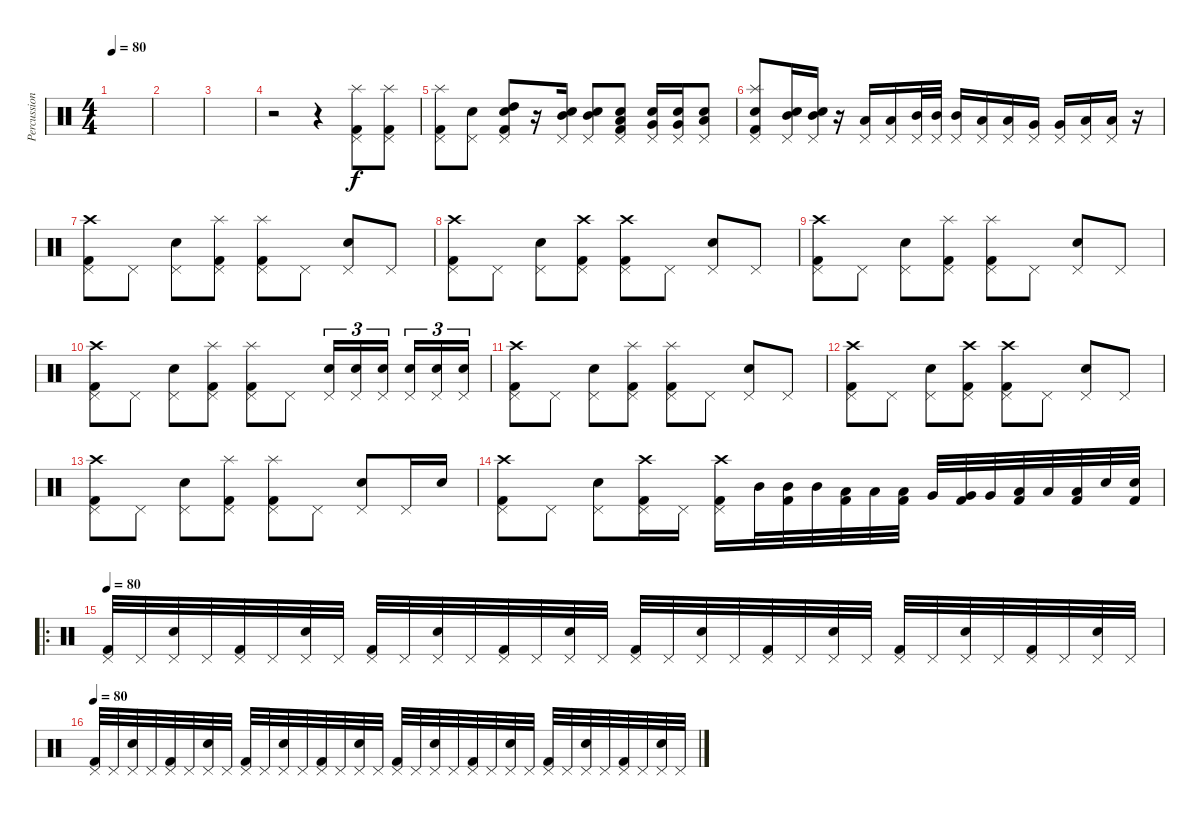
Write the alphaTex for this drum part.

\track ("Percussion" "Percussion") {instrument percussion}
\staff {score}
\articulation defaults
\ts (4 4)
\tempo 80
\clef neutral
\ks c
|
|
|
r.2 r.4 ("Kick (hit) 2" "Pedal Hi-Hat (hit)" "Splash (hit)").8 ("Kick (hit) 2" "Pedal Hi-Hat (hit)" "Splash (hit)").8 |
("Kick (hit) 2" "Pedal Hi-Hat (hit)" "Splash (hit)").8 ("Pedal Hi-Hat (hit)" "Electric Snare (hit)").8 ("Kick (hit) 2" "Pedal Hi-Hat (hit)" "Snare (hit) 2" "High Tom (hit)").8 r.16 ("Pedal Hi-Hat (hit)" "Electric Snare (hit)" "Mid Tom (hit)").16 ("Pedal Hi-Hat (hit)" "Electric Snare (hit)" "Mid Tom (hit)").8 ("Kick (hit) 2" "Pedal Hi-Hat (hit)" "Electric Snare (hit)" "Low Tom (hit)").8 ("Pedal Hi-Hat (hit)" "Electric Snare (hit)" "Very Low Tom (hit)").16 ("Pedal Hi-Hat (hit)" "Electric Snare (hit)" "Very Low Tom (hit)").16 ("Pedal Hi-Hat (hit)" "Snare (hit) 2" "Low Floor Tom (hit)").8 |
("Kick (hit) 2" "Pedal Hi-Hat (hit)" "Electric Snare (hit)" "Splash (hit)").8 ("Pedal Hi-Hat (hit)" "Electric Snare (hit)" "Mid Tom (hit)").16 ("Pedal Hi-Hat (hit)" "Electric Snare (hit)" "Mid Tom (hit)").16 r.16 ("Pedal Hi-Hat (hit)" "Low Tom (hit)").16 ("Pedal Hi-Hat (hit)" "Low Tom (hit)").16 ("Pedal Hi-Hat (hit)" "Mid Tom (hit)").32 ("Pedal Hi-Hat (hit)" "Mid Tom (hit)").32 ("Pedal Hi-Hat (hit)" "Mid Tom (hit)").16 ("Pedal Hi-Hat (hit)" "Low Tom (hit)").16 ("Pedal Hi-Hat (hit)" "Low Tom (hit)").16 ("Pedal Hi-Hat (hit)" "Very Low Tom (hit)").16 ("Pedal Hi-Hat (hit)" "Very Low Tom (hit)").16 ("Pedal Hi-Hat (hit)" "Low Floor Tom (hit)").16 ("Pedal Hi-Hat (hit)" "Low Floor Tom (hit)").16 r.16 |
("Kick (hit) 2" "Pedal Hi-Hat (hit)" "Crash high (hit)").8 "Pedal Hi-Hat (hit)".8 ("Pedal Hi-Hat (hit)" "Electric Snare (hit)").8 ("Kick (hit) 2" "Pedal Hi-Hat (hit)" "Splash (hit)").8 ("Kick (hit) 2" "Pedal Hi-Hat (hit)" "Splash (hit)").8 "Pedal Hi-Hat (hit)".8 ("Pedal Hi-Hat (hit)" "Electric Snare (hit)").8 "Pedal Hi-Hat (hit)".8 |
("Kick (hit) 2" "Pedal Hi-Hat (hit)" "Crash high (hit)").8 "Pedal Hi-Hat (hit)".8 ("Pedal Hi-Hat (hit)" "Electric Snare (hit)").8 ("Kick (hit) 2" "Pedal Hi-Hat (hit)" "Crash high (hit)").8 ("Kick (hit) 2" "Pedal Hi-Hat (hit)" "Crash high (hit)").8 "Pedal Hi-Hat (hit)".8 ("Pedal Hi-Hat (hit)" "Electric Snare (hit)").8 "Pedal Hi-Hat (hit)".8 |
("Kick (hit) 2" "Pedal Hi-Hat (hit)" "Crash high (hit)").8 "Pedal Hi-Hat (hit)".8 ("Pedal Hi-Hat (hit)" "Electric Snare (hit)").8 ("Kick (hit) 2" "Pedal Hi-Hat (hit)" "Splash (hit)").8 ("Kick (hit) 2" "Pedal Hi-Hat (hit)" "Splash (hit)").8 "Pedal Hi-Hat (hit)".8 ("Pedal Hi-Hat (hit)" "Electric Snare (hit)").8 "Pedal Hi-Hat (hit)".8 |
("Kick (hit) 2" "Pedal Hi-Hat (hit)" "Crash high (hit)").8 "Pedal Hi-Hat (hit)".8 ("Pedal Hi-Hat (hit)" "Electric Snare (hit)").8 ("Kick (hit) 2" "Pedal Hi-Hat (hit)" "Splash (hit)").8 ("Kick (hit) 2" "Pedal Hi-Hat (hit)" "Splash (hit)").8 "Pedal Hi-Hat (hit)".8 ("Pedal Hi-Hat (hit)" "Electric Snare (hit)").16{tu (3 2)} ("Pedal Hi-Hat (hit)" "Electric Snare (hit)").16{tu (3 2)} ("Pedal Hi-Hat (hit)" "Electric Snare (hit)").16{tu (3 2)} ("Pedal Hi-Hat (hit)" "Electric Snare (hit)").16{tu (3 2)} ("Pedal Hi-Hat (hit)" "Electric Snare (hit)").16{tu (3 2)} ("Pedal Hi-Hat (hit)" "Electric Snare (hit)").16{tu (3 2)} |
("Kick (hit) 2" "Pedal Hi-Hat (hit)" "Crash high (hit)").8 "Pedal Hi-Hat (hit)".8 ("Pedal Hi-Hat (hit)" "Electric Snare (hit)").8 ("Kick (hit) 2" "Pedal Hi-Hat (hit)" "Splash (hit)").8 ("Kick (hit) 2" "Pedal Hi-Hat (hit)" "Splash (hit)").8 "Pedal Hi-Hat (hit)".8 ("Pedal Hi-Hat (hit)" "Electric Snare (hit)").8 "Pedal Hi-Hat (hit)".8 |
("Kick (hit) 2" "Pedal Hi-Hat (hit)" "Crash high (hit)").8 "Pedal Hi-Hat (hit)".8 ("Pedal Hi-Hat (hit)" "Electric Snare (hit)").8 ("Kick (hit) 2" "Pedal Hi-Hat (hit)" "Crash high (hit)").8 ("Kick (hit) 2" "Pedal Hi-Hat (hit)" "Crash high (hit)").8 "Pedal Hi-Hat (hit)".8 ("Pedal Hi-Hat (hit)" "Electric Snare (hit)").8 "Pedal Hi-Hat (hit)".8 |
("Kick (hit) 2" "Pedal Hi-Hat (hit)" "Crash high (hit)").8 "Pedal Hi-Hat (hit)".8 ("Pedal Hi-Hat (hit)" "Electric Snare (hit)").8 ("Kick (hit) 2" "Pedal Hi-Hat (hit)" "Splash (hit)").8 ("Kick (hit) 2" "Pedal Hi-Hat (hit)" "Splash (hit)").8 "Pedal Hi-Hat (hit)".8 ("Pedal Hi-Hat (hit)" "Electric Snare (hit)").8 "Pedal Hi-Hat (hit)".16 "Electric Snare (hit)".16 |
("Kick (hit) 2" "Pedal Hi-Hat (hit)" "Crash high (hit)").8 "Pedal Hi-Hat (hit)".8 ("Pedal Hi-Hat (hit)" "Electric Snare (hit)").8 ("Kick (hit) 2" "Pedal Hi-Hat (hit)" "Crash high (hit)").16 "Pedal Hi-Hat (hit)".16 ("Kick (hit) 2" "Pedal Hi-Hat (hit)" "Crash high (hit)").16 "Mid Tom (hit)".32 ("Kick (hit) 2" "Mid Tom (hit)").32 "Mid Tom (hit)".32 ("Kick (hit) 2" "Low Tom (hit)").32 "Low Tom (hit)".32 ("Kick (hit) 2" "Low Tom (hit)").32 "Very Low Tom (hit)".32 ("Kick (hit) 2" "Very Low Tom (hit)").32 "Very Low Tom (hit)".32 ("Kick (hit) 2" "Low Floor Tom (hit)").32 "Low Floor Tom (hit)".32 ("Kick (hit) 2" "Low Floor Tom (hit)").32 "Electric Snare (hit)".32 ("Kick (hit) 2" "Electric Snare (hit)").32 |
\ro
\tempo 80
("Kick (hit) 2" "Pedal Hi-Hat (hit)").32 "Pedal Hi-Hat (hit)".32 ("Pedal Hi-Hat (hit)" "Electric Snare (hit)").32 "Pedal Hi-Hat (hit)".32 ("Kick (hit) 2" "Pedal Hi-Hat (hit)").32 "Pedal Hi-Hat (hit)".32 ("Pedal Hi-Hat (hit)" "Electric Snare (hit)").32 "Pedal Hi-Hat (hit)".32 ("Kick (hit) 2" "Pedal Hi-Hat (hit)").32 "Pedal Hi-Hat (hit)".32 ("Pedal Hi-Hat (hit)" "Electric Snare (hit)").32 "Pedal Hi-Hat (hit)".32 ("Kick (hit) 2" "Pedal Hi-Hat (hit)").32 "Pedal Hi-Hat (hit)".32 ("Pedal Hi-Hat (hit)" "Electric Snare (hit)").32 "Pedal Hi-Hat (hit)".32 ("Kick (hit) 2" "Pedal Hi-Hat (hit)").32 "Pedal Hi-Hat (hit)".32 ("Pedal Hi-Hat (hit)" "Electric Snare (hit)").32 "Pedal Hi-Hat (hit)".32 ("Kick (hit) 2" "Pedal Hi-Hat (hit)").32 "Pedal Hi-Hat (hit)".32 ("Pedal Hi-Hat (hit)" "Electric Snare (hit)").32 "Pedal Hi-Hat (hit)".32 ("Kick (hit) 2" "Pedal Hi-Hat (hit)").32 "Pedal Hi-Hat (hit)".32 ("Pedal Hi-Hat (hit)" "Electric Snare (hit)").32 "Pedal Hi-Hat (hit)".32 ("Kick (hit) 2" "Pedal Hi-Hat (hit)").32 "Pedal Hi-Hat (hit)".32 ("Pedal Hi-Hat (hit)" "Electric Snare (hit)").32 "Pedal Hi-Hat (hit)".32 |
\tempo 80
("Kick (hit) 2" "Pedal Hi-Hat (hit)").32 "Pedal Hi-Hat (hit)".32 ("Pedal Hi-Hat (hit)" "Electric Snare (hit)").32 "Pedal Hi-Hat (hit)".32 ("Kick (hit) 2" "Pedal Hi-Hat (hit)").32 "Pedal Hi-Hat (hit)".32 ("Pedal Hi-Hat (hit)" "Electric Snare (hit)").32 "Pedal Hi-Hat (hit)".32 ("Kick (hit) 2" "Pedal Hi-Hat (hit)").32 "Pedal Hi-Hat (hit)".32 ("Pedal Hi-Hat (hit)" "Electric Snare (hit)").32 "Pedal Hi-Hat (hit)".32 ("Kick (hit) 2" "Pedal Hi-Hat (hit)").32 "Pedal Hi-Hat (hit)".32 ("Pedal Hi-Hat (hit)" "Electric Snare (hit)").32 "Pedal Hi-Hat (hit)".32 ("Kick (hit) 2" "Pedal Hi-Hat (hit)").32 "Pedal Hi-Hat (hit)".32 ("Pedal Hi-Hat (hit)" "Electric Snare (hit)").32 "Pedal Hi-Hat (hit)".32 ("Kick (hit) 2" "Pedal Hi-Hat (hit)").32 "Pedal Hi-Hat (hit)".32 ("Pedal Hi-Hat (hit)" "Electric Snare (hit)").32 "Pedal Hi-Hat (hit)".32 ("Kick (hit) 2" "Pedal Hi-Hat (hit)").32 "Pedal Hi-Hat (hit)".32 ("Pedal Hi-Hat (hit)" "Electric Snare (hit)").32 "Pedal Hi-Hat (hit)".32 ("Kick (hit) 2" "Pedal Hi-Hat (hit)").32 "Pedal Hi-Hat (hit)".32 ("Pedal Hi-Hat (hit)" "Electric Snare (hit)").32 "Pedal Hi-Hat (hit)".32
